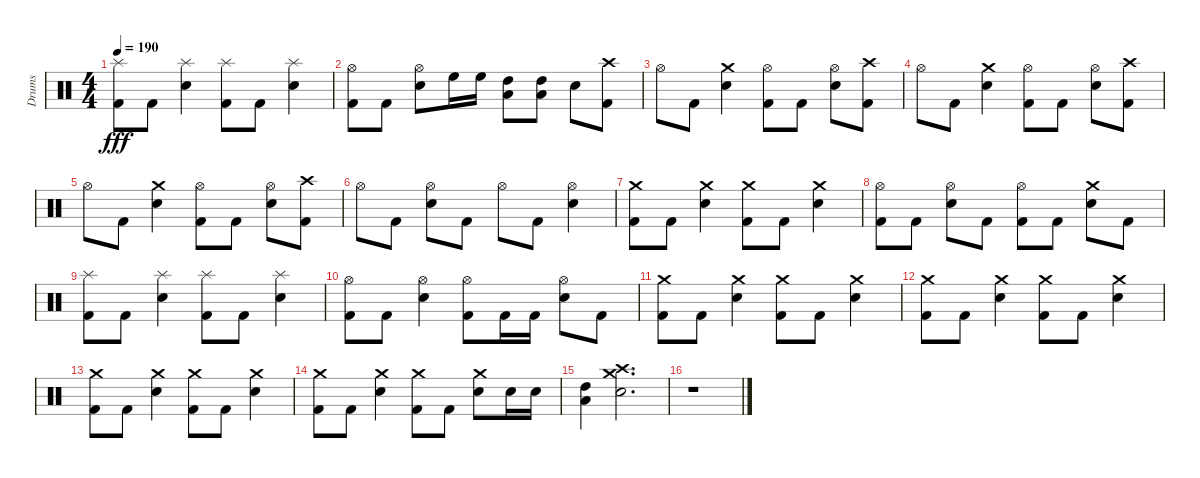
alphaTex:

\track ("Drums" "Drums") {instrument percussion}
\staff {score}
\articulation defaults
\ts (4 4)
\tempo 190
\clef neutral
\ks c
("Kick (hit) 2" "Splash (hit)").8{dy fff} "Kick (hit) 2".8 ("Electric Snare (hit)" "Splash (hit)").4 ("Kick (hit) 2" "Splash (hit)").8 "Kick (hit) 2".8 ("Electric Snare (hit)" "Splash (hit)").4 |
("Kick (hit) 2" "Hi-Hat (open)").8 "Kick (hit) 2".8 ("Electric Snare (hit)" "Hi-Hat (open)").8 "High Floor Tom (hit)".16 "High Floor Tom (hit)".16 ("High Tom (hit)" "Low Tom (hit)").8 ("High Tom (hit)" "Low Tom (hit)").8 "Electric Snare (hit)".8 ("Kick (hit) 2" "Crash high (hit)").8 |
"Hi-Hat (open)".8 "Kick (hit) 2".8 ("Electric Snare (hit)" "Crash medium (hit)").4 ("Kick (hit) 2" "Hi-Hat (open)").8 "Kick (hit) 2".8 ("Electric Snare (hit)" "Hi-Hat (open)").8 ("Kick (hit) 2" "Crash high (hit)").8 |
"Hi-Hat (open)".8 "Kick (hit) 2".8 ("Electric Snare (hit)" "Crash medium (hit)").4 ("Kick (hit) 2" "Hi-Hat (open)").8 "Kick (hit) 2".8 ("Electric Snare (hit)" "Hi-Hat (open)").8 ("Kick (hit) 2" "Crash high (hit)").8 |
"Hi-Hat (open)".8 "Kick (hit) 2".8 ("Electric Snare (hit)" "Crash medium (hit)").4 ("Kick (hit) 2" "Hi-Hat (open)").8 "Kick (hit) 2".8 ("Electric Snare (hit)" "Hi-Hat (open)").8 ("Kick (hit) 2" "Crash high (hit)").8 |
"Hi-Hat (open)".8 "Kick (hit) 2".8 ("Electric Snare (hit)" "Hi-Hat (open)").8 "Kick (hit) 2".8 "Hi-Hat (open)".8 "Kick (hit) 2".8 ("Electric Snare (hit)" "Hi-Hat (open)").4 |
("Kick (hit) 2" "Crash medium (hit)").8 "Kick (hit) 2".8 ("Electric Snare (hit)" "Crash medium (hit)").4 ("Kick (hit) 2" "Crash medium (hit)").8 "Kick (hit) 2".8 ("Electric Snare (hit)" "Crash medium (hit)").4 |
("Kick (hit) 2" "Hi-Hat (open)").8 "Kick (hit) 2".8 ("Electric Snare (hit)" "Hi-Hat (open)").8 "Kick (hit) 2".8 ("Kick (hit) 2" "Hi-Hat (open)").8 "Kick (hit) 2".8 ("Electric Snare (hit)" "Crash medium (hit)").8 "Kick (hit) 2".8 |
("Kick (hit) 2" "Splash (hit)").8 "Kick (hit) 2".8 ("Electric Snare (hit)" "Splash (hit)").4 ("Kick (hit) 2" "Splash (hit)").8 "Kick (hit) 2".8 ("Electric Snare (hit)" "Splash (hit)").4 |
("Kick (hit) 2" "Hi-Hat (open)").8 "Kick (hit) 2".8 ("Electric Snare (hit)" "Hi-Hat (open)").4 ("Kick (hit) 2" "Hi-Hat (open)").8 "Kick (hit) 2".16 "Kick (hit) 2".16 ("Electric Snare (hit)" "Hi-Hat (open)").8 "Kick (hit) 2".8 |
("Kick (hit) 2" "Crash medium (hit)").8 "Kick (hit) 2".8 ("Electric Snare (hit)" "Crash medium (hit)").4 ("Kick (hit) 2" "Crash medium (hit)").8 "Kick (hit) 2".8 ("Electric Snare (hit)" "Crash medium (hit)").4 |
("Kick (hit) 2" "Crash medium (hit)").8 "Kick (hit) 2".8 ("Electric Snare (hit)" "Crash medium (hit)").4 ("Kick (hit) 2" "Crash medium (hit)").8 "Kick (hit) 2".8 ("Electric Snare (hit)" "Crash medium (hit)").4 |
("Kick (hit) 2" "Crash medium (hit)").8 "Kick (hit) 2".8 ("Electric Snare (hit)" "Crash medium (hit)").4 ("Kick (hit) 2" "Crash medium (hit)").8 "Kick (hit) 2".8 ("Electric Snare (hit)" "Crash medium (hit)").4 |
("Kick (hit) 2" "Crash medium (hit)").8 "Kick (hit) 2".8 ("Electric Snare (hit)" "Crash medium (hit)").4 ("Kick (hit) 2" "Crash medium (hit)").8 "Kick (hit) 2".8 ("Electric Snare (hit)" "Crash medium (hit)").8 "Electric Snare (hit)".16 "Electric Snare (hit)".16 |
("High Tom (hit)" "Low Tom (hit)").4 ("Electric Snare (hit)" "Crash high (hit)" "Crash medium (hit)").2{d} |
r.1
